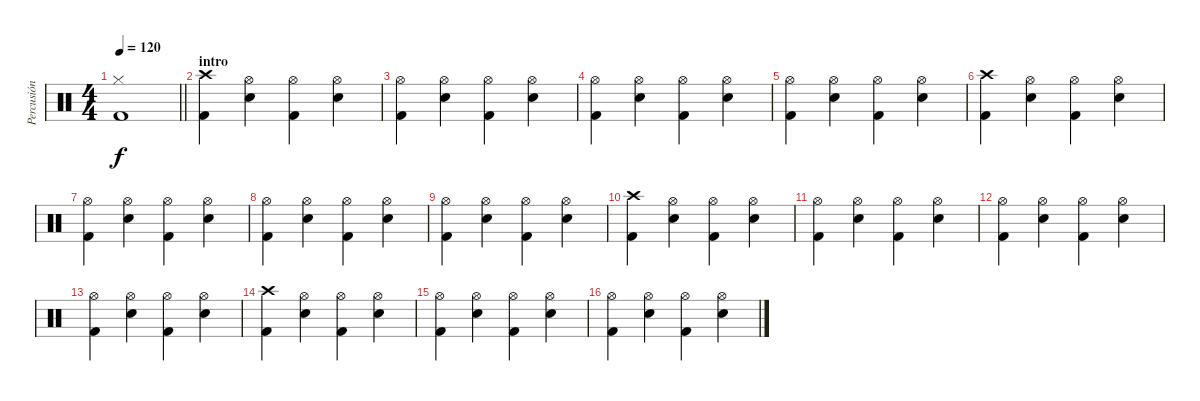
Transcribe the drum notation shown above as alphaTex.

\track ("Percusión" "Percusión") {instrument percussion}
\staff {score}
\articulation defaults
\ts (4 4)
\tempo 120
\clef neutral
\barLineRight lightlight
\ks c
("Hi-Hat (closed)" "Kick (hit) 2").1{dy f} |
\section ("" "intro")
("Crash high (hit)" "Kick (hit) 2").4 ("Hi-Hat (open)" "Electric Snare (hit)").4 ("Hi-Hat (open)" "Kick (hit) 2").4 ("Hi-Hat (open)" "Electric Snare (hit)").4 |
("Hi-Hat (open)" "Kick (hit) 2").4 ("Hi-Hat (open)" "Electric Snare (hit)").4 ("Hi-Hat (open)" "Kick (hit) 2").4 ("Hi-Hat (open)" "Electric Snare (hit)").4 |
("Hi-Hat (open)" "Kick (hit) 2").4 ("Hi-Hat (open)" "Electric Snare (hit)").4 ("Hi-Hat (open)" "Kick (hit) 2").4 ("Hi-Hat (open)" "Electric Snare (hit)").4 |
("Hi-Hat (open)" "Kick (hit) 2").4 ("Hi-Hat (open)" "Electric Snare (hit)").4 ("Hi-Hat (open)" "Kick (hit) 2").4 ("Hi-Hat (open)" "Electric Snare (hit)").4 |
("Crash high (hit)" "Kick (hit) 2").4 ("Hi-Hat (open)" "Electric Snare (hit)").4 ("Hi-Hat (open)" "Kick (hit) 2").4 ("Hi-Hat (open)" "Electric Snare (hit)").4 |
("Hi-Hat (open)" "Kick (hit) 2").4 ("Hi-Hat (open)" "Electric Snare (hit)").4 ("Hi-Hat (open)" "Kick (hit) 2").4 ("Hi-Hat (open)" "Electric Snare (hit)").4 |
("Hi-Hat (open)" "Kick (hit) 2").4 ("Hi-Hat (open)" "Electric Snare (hit)").4 ("Hi-Hat (open)" "Kick (hit) 2").4 ("Hi-Hat (open)" "Electric Snare (hit)").4 |
("Hi-Hat (open)" "Kick (hit) 2").4 ("Hi-Hat (open)" "Electric Snare (hit)").4 ("Hi-Hat (open)" "Kick (hit) 2").4 ("Hi-Hat (open)" "Electric Snare (hit)").4 |
("Crash high (hit)" "Kick (hit) 2").4 ("Hi-Hat (open)" "Electric Snare (hit)").4 ("Hi-Hat (open)" "Kick (hit) 2").4 ("Hi-Hat (open)" "Electric Snare (hit)").4 |
("Hi-Hat (open)" "Kick (hit) 2").4 ("Hi-Hat (open)" "Electric Snare (hit)").4 ("Hi-Hat (open)" "Kick (hit) 2").4 ("Hi-Hat (open)" "Electric Snare (hit)").4 |
("Hi-Hat (open)" "Kick (hit) 2").4 ("Hi-Hat (open)" "Electric Snare (hit)").4 ("Hi-Hat (open)" "Kick (hit) 2").4 ("Hi-Hat (open)" "Electric Snare (hit)").4 |
("Hi-Hat (open)" "Kick (hit) 2").4 ("Hi-Hat (open)" "Electric Snare (hit)").4 ("Hi-Hat (open)" "Kick (hit) 2").4 ("Hi-Hat (open)" "Electric Snare (hit)").4 |
("Crash high (hit)" "Kick (hit) 2").4 ("Hi-Hat (open)" "Electric Snare (hit)").4 ("Hi-Hat (open)" "Kick (hit) 2").4 ("Hi-Hat (open)" "Electric Snare (hit)").4 |
("Hi-Hat (open)" "Kick (hit) 2").4 ("Hi-Hat (open)" "Electric Snare (hit)").4 ("Hi-Hat (open)" "Kick (hit) 2").4 ("Hi-Hat (open)" "Electric Snare (hit)").4 |
("Hi-Hat (open)" "Kick (hit) 2").4 ("Hi-Hat (open)" "Electric Snare (hit)").4 ("Hi-Hat (open)" "Kick (hit) 2").4 ("Hi-Hat (open)" "Electric Snare (hit)").4
